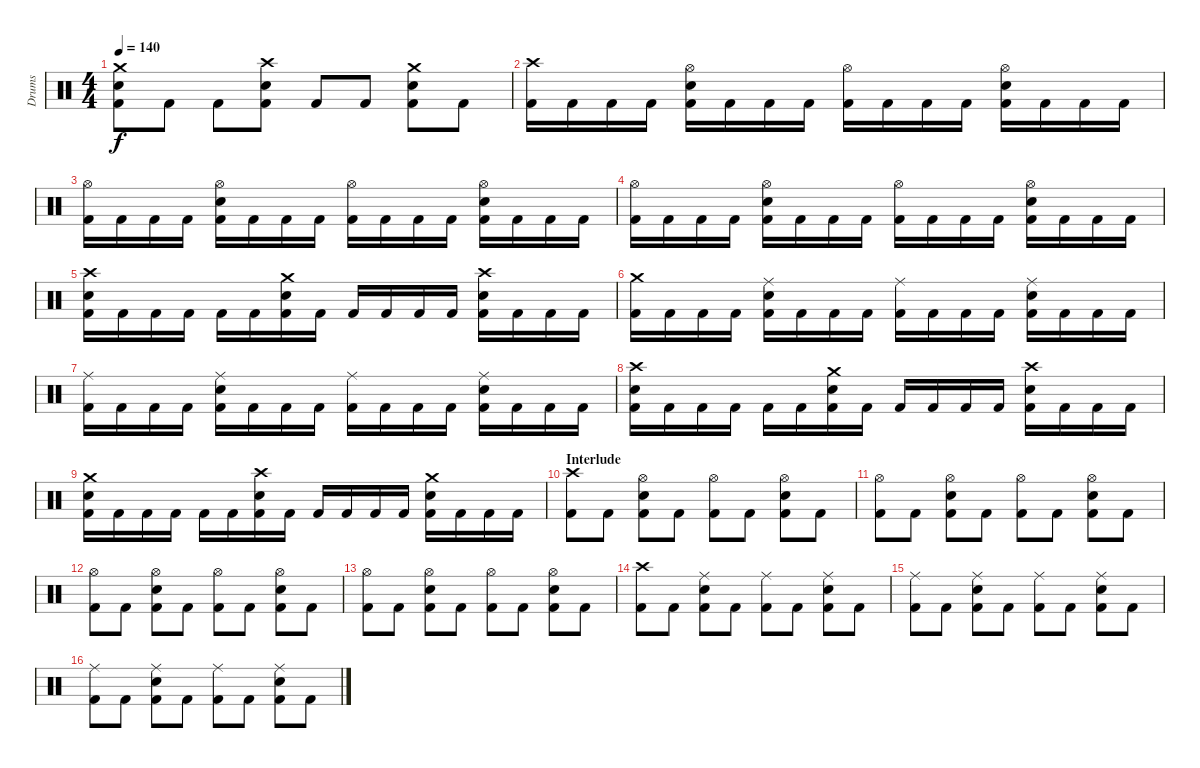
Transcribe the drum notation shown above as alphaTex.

\track ("Drums" "Drums") {instrument percussion}
\staff {score}
\articulation defaults
\ts (4 4)
\tempo 140
\clef neutral
\ks c
("Crash medium (hit)" "Electric Snare (hit)" "Kick (hit) 2").8{dy f} "Kick (hit) 2".8 "Kick (hit) 2".8 ("Crash high (hit)" "Electric Snare (hit)" "Kick (hit) 2").8 "Kick (hit) 2".8 "Kick (hit) 2".8 ("Crash medium (hit)" "Electric Snare (hit)" "Kick (hit) 2").8 "Kick (hit) 2".8 |
("Crash high (hit)" "Kick (hit) 2").16 "Kick (hit) 2".16 "Kick (hit) 2".16 "Kick (hit) 2".16 ("Hi-Hat (open)" "Electric Snare (hit)" "Kick (hit) 2").16 "Kick (hit) 2".16 "Kick (hit) 2".16 "Kick (hit) 2".16 ("Hi-Hat (open)" "Kick (hit) 2").16 "Kick (hit) 2".16 "Kick (hit) 2".16 "Kick (hit) 2".16 ("Hi-Hat (open)" "Electric Snare (hit)" "Kick (hit) 2").16 "Kick (hit) 2".16 "Kick (hit) 2".16 "Kick (hit) 2".16 |
("Hi-Hat (open)" "Kick (hit) 2").16 "Kick (hit) 2".16 "Kick (hit) 2".16 "Kick (hit) 2".16 ("Hi-Hat (open)" "Electric Snare (hit)" "Kick (hit) 2").16 "Kick (hit) 2".16 "Kick (hit) 2".16 "Kick (hit) 2".16 ("Hi-Hat (open)" "Kick (hit) 2").16 "Kick (hit) 2".16 "Kick (hit) 2".16 "Kick (hit) 2".16 ("Hi-Hat (open)" "Electric Snare (hit)" "Kick (hit) 2").16 "Kick (hit) 2".16 "Kick (hit) 2".16 "Kick (hit) 2".16 |
("Hi-Hat (open)" "Kick (hit) 2").16 "Kick (hit) 2".16 "Kick (hit) 2".16 "Kick (hit) 2".16 ("Hi-Hat (open)" "Electric Snare (hit)" "Kick (hit) 2").16 "Kick (hit) 2".16 "Kick (hit) 2".16 "Kick (hit) 2".16 ("Hi-Hat (open)" "Kick (hit) 2").16 "Kick (hit) 2".16 "Kick (hit) 2".16 "Kick (hit) 2".16 ("Hi-Hat (open)" "Electric Snare (hit)" "Kick (hit) 2").16 "Kick (hit) 2".16 "Kick (hit) 2".16 "Kick (hit) 2".16 |
("Crash high (hit)" "Electric Snare (hit)" "Kick (hit) 2").16 "Kick (hit) 2".16 "Kick (hit) 2".16 "Kick (hit) 2".16 "Kick (hit) 2".16 "Kick (hit) 2".16 ("Crash medium (hit)" "Electric Snare (hit)" "Kick (hit) 2").16 "Kick (hit) 2".16 "Kick (hit) 2".16 "Kick (hit) 2".16 "Kick (hit) 2".16 "Kick (hit) 2".16 ("Crash high (hit)" "Electric Snare (hit)" "Kick (hit) 2").16 "Kick (hit) 2".16 "Kick (hit) 2".16 "Kick (hit) 2".16 |
("Crash medium (hit)" "Kick (hit) 2").16 "Kick (hit) 2".16 "Kick (hit) 2".16 "Kick (hit) 2".16 ("Ride (middle)" "Electric Snare (hit)" "Kick (hit) 2").16 "Kick (hit) 2".16 "Kick (hit) 2".16 "Kick (hit) 2".16 ("Ride (middle)" "Kick (hit) 2").16 "Kick (hit) 2".16 "Kick (hit) 2".16 "Kick (hit) 2".16 ("Ride (middle)" "Electric Snare (hit)" "Kick (hit) 2").16 "Kick (hit) 2".16 "Kick (hit) 2".16 "Kick (hit) 2".16 |
("Ride (middle)" "Kick (hit) 2").16 "Kick (hit) 2".16 "Kick (hit) 2".16 "Kick (hit) 2".16 ("Ride (middle)" "Electric Snare (hit)" "Kick (hit) 2").16 "Kick (hit) 2".16 "Kick (hit) 2".16 "Kick (hit) 2".16 ("Ride (middle)" "Kick (hit) 2").16 "Kick (hit) 2".16 "Kick (hit) 2".16 "Kick (hit) 2".16 ("Ride (middle)" "Electric Snare (hit)" "Kick (hit) 2").16 "Kick (hit) 2".16 "Kick (hit) 2".16 "Kick (hit) 2".16 |
("Crash high (hit)" "Electric Snare (hit)" "Kick (hit) 2").16 "Kick (hit) 2".16 "Kick (hit) 2".16 "Kick (hit) 2".16 "Kick (hit) 2".16 "Kick (hit) 2".16 ("Crash medium (hit)" "Electric Snare (hit)" "Kick (hit) 2").16 "Kick (hit) 2".16 "Kick (hit) 2".16 "Kick (hit) 2".16 "Kick (hit) 2".16 "Kick (hit) 2".16 ("Crash high (hit)" "Electric Snare (hit)" "Kick (hit) 2").16 "Kick (hit) 2".16 "Kick (hit) 2".16 "Kick (hit) 2".16 |
("Crash medium (hit)" "Electric Snare (hit)" "Kick (hit) 2").16 "Kick (hit) 2".16 "Kick (hit) 2".16 "Kick (hit) 2".16 "Kick (hit) 2".16 "Kick (hit) 2".16 ("Crash high (hit)" "Electric Snare (hit)" "Kick (hit) 2").16 "Kick (hit) 2".16 "Kick (hit) 2".16 "Kick (hit) 2".16 "Kick (hit) 2".16 "Kick (hit) 2".16 ("Crash medium (hit)" "Electric Snare (hit)" "Kick (hit) 2").16 "Kick (hit) 2".16 "Kick (hit) 2".16 "Kick (hit) 2".16 |
\section ("" "Interlude")
("Crash high (hit)" "Kick (hit) 2").8 "Kick (hit) 2".8 ("Hi-Hat (open)" "Electric Snare (hit)" "Kick (hit) 2").8 "Kick (hit) 2".8 ("Hi-Hat (open)" "Kick (hit) 2").8 "Kick (hit) 2".8 ("Hi-Hat (open)" "Electric Snare (hit)" "Kick (hit) 2").8 "Kick (hit) 2".8 |
("Hi-Hat (open)" "Kick (hit) 2").8 "Kick (hit) 2".8 ("Hi-Hat (open)" "Electric Snare (hit)" "Kick (hit) 2").8 "Kick (hit) 2".8 ("Hi-Hat (open)" "Kick (hit) 2").8 "Kick (hit) 2".8 ("Hi-Hat (open)" "Electric Snare (hit)" "Kick (hit) 2").8 "Kick (hit) 2".8 |
("Hi-Hat (open)" "Kick (hit) 2").8 "Kick (hit) 2".8 ("Hi-Hat (open)" "Electric Snare (hit)" "Kick (hit) 2").8 "Kick (hit) 2".8 ("Hi-Hat (open)" "Kick (hit) 2").8 "Kick (hit) 2".8 ("Hi-Hat (open)" "Electric Snare (hit)" "Kick (hit) 2").8 "Kick (hit) 2".8 |
("Hi-Hat (open)" "Kick (hit) 2").8 "Kick (hit) 2".8 ("Hi-Hat (open)" "Electric Snare (hit)" "Kick (hit) 2").8 "Kick (hit) 2".8 ("Hi-Hat (open)" "Kick (hit) 2").8 "Kick (hit) 2".8 ("Hi-Hat (open)" "Electric Snare (hit)" "Kick (hit) 2").8 "Kick (hit) 2".8 |
("Crash high (hit)" "Kick (hit) 2").8 "Kick (hit) 2".8 ("Ride (middle)" "Electric Snare (hit)" "Kick (hit) 2").8 "Kick (hit) 2".8 ("Ride (middle)" "Kick (hit) 2").8 "Kick (hit) 2".8 ("Ride (middle)" "Electric Snare (hit)" "Kick (hit) 2").8 "Kick (hit) 2".8 |
("Ride (middle)" "Kick (hit) 2").8 "Kick (hit) 2".8 ("Ride (middle)" "Electric Snare (hit)" "Kick (hit) 2").8 "Kick (hit) 2".8 ("Ride (middle)" "Kick (hit) 2").8 "Kick (hit) 2".8 ("Ride (middle)" "Electric Snare (hit)" "Kick (hit) 2").8 "Kick (hit) 2".8 |
("Ride (middle)" "Kick (hit) 2").8 "Kick (hit) 2".8 ("Ride (middle)" "Electric Snare (hit)" "Kick (hit) 2").8 "Kick (hit) 2".8 ("Ride (middle)" "Kick (hit) 2").8 "Kick (hit) 2".8 ("Ride (middle)" "Electric Snare (hit)" "Kick (hit) 2").8 "Kick (hit) 2".8
